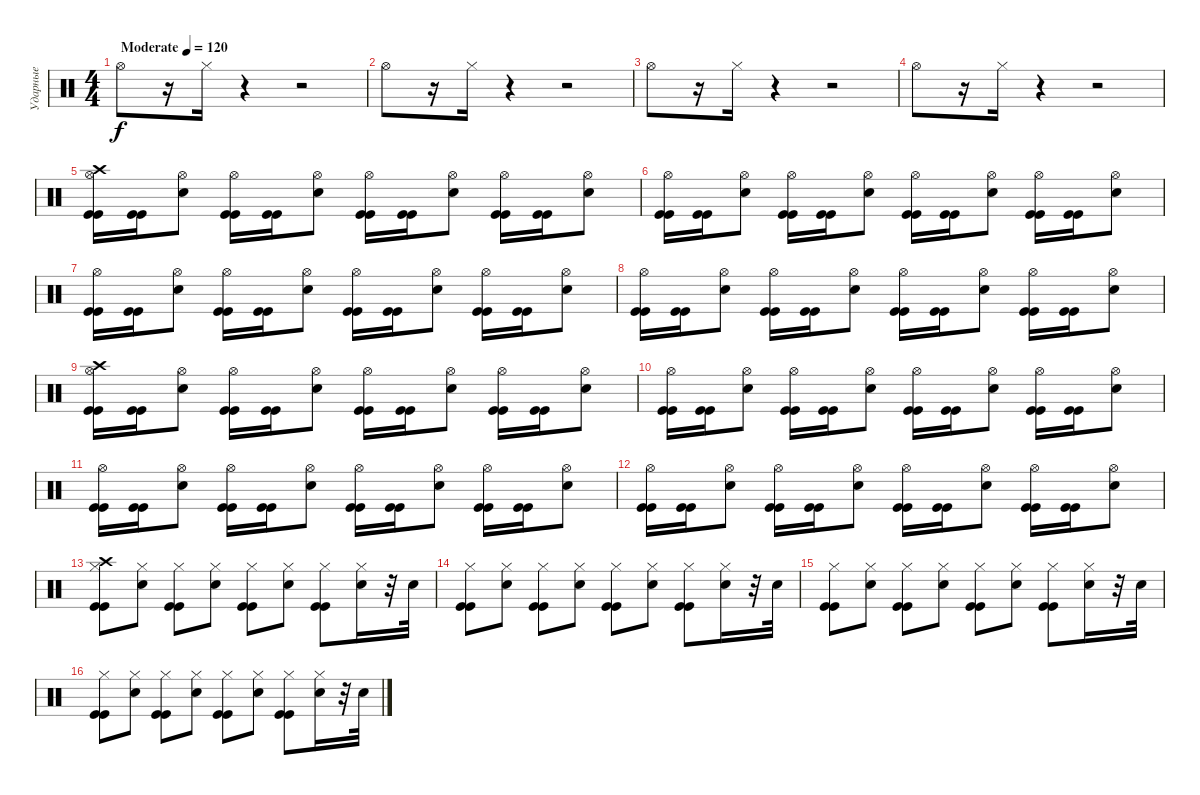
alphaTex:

\track ("Ударные" "Ударные") {instrument percussion}
\staff {score}
\articulation defaults
\ts (4 4)
\tempo (120 "Moderate")
\clef neutral
\ks c "Hi-Hat (open)".8{dy f}
r.16 "Hi-Hat (closed)".16 r.4 r.2 |
"Hi-Hat (open)".8 r.16 "Hi-Hat (closed)".16 r.4 r.2 |
"Hi-Hat (open)".8 r.16 "Hi-Hat (closed)".16 r.4 r.2 |
"Hi-Hat (open)".8 r.16 "Hi-Hat (closed)".16 r.4 r.2 |
("Crash high (hit)" "Hi-Hat (open)" "Kick (hit)" "Kick (hit)").16 ("Kick (hit)" "Kick (hit)").16 ("Hi-Hat (open)" "Electric Snare (hit)").8 ("Hi-Hat (open)" "Kick (hit)" "Kick (hit)").16 ("Kick (hit)" "Kick (hit)").16 ("Hi-Hat (open)" "Electric Snare (hit)").8 ("Hi-Hat (open)" "Kick (hit)" "Kick (hit)").16 ("Kick (hit)" "Kick (hit)").16 ("Hi-Hat (open)" "Electric Snare (hit)").8 ("Hi-Hat (open)" "Kick (hit)" "Kick (hit)").16 ("Kick (hit)" "Kick (hit)").16 ("Hi-Hat (open)" "Electric Snare (hit)").8 |
("Hi-Hat (open)" "Kick (hit)" "Kick (hit)").16 ("Kick (hit)" "Kick (hit)").16 ("Hi-Hat (open)" "Electric Snare (hit)").8 ("Hi-Hat (open)" "Kick (hit)" "Kick (hit)").16 ("Kick (hit)" "Kick (hit)").16 ("Hi-Hat (open)" "Electric Snare (hit)").8 ("Hi-Hat (open)" "Kick (hit)" "Kick (hit)").16 ("Kick (hit)" "Kick (hit)").16 ("Hi-Hat (open)" "Electric Snare (hit)").8 ("Hi-Hat (open)" "Kick (hit)" "Kick (hit)").16 ("Kick (hit)" "Kick (hit)").16 ("Hi-Hat (open)" "Electric Snare (hit)").8 |
("Hi-Hat (open)" "Kick (hit)" "Kick (hit)").16 ("Kick (hit)" "Kick (hit)").16 ("Hi-Hat (open)" "Electric Snare (hit)").8 ("Hi-Hat (open)" "Kick (hit)" "Kick (hit)").16 ("Kick (hit)" "Kick (hit)").16 ("Hi-Hat (open)" "Electric Snare (hit)").8 ("Hi-Hat (open)" "Kick (hit)" "Kick (hit)").16 ("Kick (hit)" "Kick (hit)").16 ("Hi-Hat (open)" "Electric Snare (hit)").8 ("Hi-Hat (open)" "Kick (hit)" "Kick (hit)").16 ("Kick (hit)" "Kick (hit)").16 ("Hi-Hat (open)" "Electric Snare (hit)").8 |
("Hi-Hat (open)" "Kick (hit)" "Kick (hit)").16 ("Kick (hit)" "Kick (hit)").16 ("Hi-Hat (open)" "Electric Snare (hit)").8 ("Hi-Hat (open)" "Kick (hit)" "Kick (hit)").16 ("Kick (hit)" "Kick (hit)").16 ("Hi-Hat (open)" "Electric Snare (hit)").8 ("Hi-Hat (open)" "Kick (hit)" "Kick (hit)").16 ("Kick (hit)" "Kick (hit)").16 ("Hi-Hat (open)" "Electric Snare (hit)").8 ("Hi-Hat (open)" "Kick (hit)" "Kick (hit)").16 ("Kick (hit)" "Kick (hit)").16 ("Hi-Hat (open)" "Electric Snare (hit)").8 |
("Crash high (hit)" "Hi-Hat (open)" "Kick (hit)" "Kick (hit)").16 ("Kick (hit)" "Kick (hit)").16 ("Hi-Hat (open)" "Electric Snare (hit)").8 ("Hi-Hat (open)" "Kick (hit)" "Kick (hit)").16 ("Kick (hit)" "Kick (hit)").16 ("Hi-Hat (open)" "Electric Snare (hit)").8 ("Hi-Hat (open)" "Kick (hit)" "Kick (hit)").16 ("Kick (hit)" "Kick (hit)").16 ("Hi-Hat (open)" "Electric Snare (hit)").8 ("Hi-Hat (open)" "Kick (hit)" "Kick (hit)").16 ("Kick (hit)" "Kick (hit)").16 ("Hi-Hat (open)" "Electric Snare (hit)").8 |
("Hi-Hat (open)" "Kick (hit)" "Kick (hit)").16 ("Kick (hit)" "Kick (hit)").16 ("Hi-Hat (open)" "Electric Snare (hit)").8 ("Hi-Hat (open)" "Kick (hit)" "Kick (hit)").16 ("Kick (hit)" "Kick (hit)").16 ("Hi-Hat (open)" "Electric Snare (hit)").8 ("Hi-Hat (open)" "Kick (hit)" "Kick (hit)").16 ("Kick (hit)" "Kick (hit)").16 ("Hi-Hat (open)" "Electric Snare (hit)").8 ("Hi-Hat (open)" "Kick (hit)" "Kick (hit)").16 ("Kick (hit)" "Kick (hit)").16 ("Hi-Hat (open)" "Electric Snare (hit)").8 |
("Hi-Hat (open)" "Kick (hit)" "Kick (hit)").16 ("Kick (hit)" "Kick (hit)").16 ("Hi-Hat (open)" "Electric Snare (hit)").8 ("Hi-Hat (open)" "Kick (hit)" "Kick (hit)").16 ("Kick (hit)" "Kick (hit)").16 ("Hi-Hat (open)" "Electric Snare (hit)").8 ("Hi-Hat (open)" "Kick (hit)" "Kick (hit)").16 ("Kick (hit)" "Kick (hit)").16 ("Hi-Hat (open)" "Electric Snare (hit)").8 ("Hi-Hat (open)" "Kick (hit)" "Kick (hit)").16 ("Kick (hit)" "Kick (hit)").16 ("Hi-Hat (open)" "Electric Snare (hit)").8 |
("Hi-Hat (open)" "Kick (hit)" "Kick (hit)").16 ("Kick (hit)" "Kick (hit)").16 ("Hi-Hat (open)" "Electric Snare (hit)").8 ("Hi-Hat (open)" "Kick (hit)" "Kick (hit)").16 ("Kick (hit)" "Kick (hit)").16 ("Hi-Hat (open)" "Electric Snare (hit)").8 ("Hi-Hat (open)" "Kick (hit)" "Kick (hit)").16 ("Kick (hit)" "Kick (hit)").16 ("Hi-Hat (open)" "Electric Snare (hit)").8 ("Hi-Hat (open)" "Kick (hit)" "Kick (hit)").16 ("Kick (hit)" "Kick (hit)").16 ("Hi-Hat (open)" "Electric Snare (hit)").8 |
("Crash high (hit)" "Hi-Hat (closed)" "Kick (hit)" "Kick (hit)").8 ("Hi-Hat (closed)" "Electric Snare (hit)").8 ("Hi-Hat (closed)" "Kick (hit)" "Kick (hit)").8 ("Hi-Hat (closed)" "Electric Snare (hit)").8 ("Hi-Hat (closed)" "Kick (hit)" "Kick (hit)").8 ("Hi-Hat (closed)" "Electric Snare (hit)").8 ("Hi-Hat (closed)" "Kick (hit)" "Kick (hit)").8 ("Hi-Hat (closed)" "Electric Snare (hit)").16 r.32 "Electric Snare (hit)".32 |
("Hi-Hat (closed)" "Kick (hit)" "Kick (hit)").8 ("Hi-Hat (closed)" "Electric Snare (hit)").8 ("Hi-Hat (closed)" "Kick (hit)" "Kick (hit)").8 ("Hi-Hat (closed)" "Electric Snare (hit)").8 ("Hi-Hat (closed)" "Kick (hit)" "Kick (hit)").8 ("Hi-Hat (closed)" "Electric Snare (hit)").8 ("Hi-Hat (closed)" "Kick (hit)" "Kick (hit)").8 ("Hi-Hat (closed)" "Electric Snare (hit)").16 r.32 "Electric Snare (hit)".32 |
("Hi-Hat (closed)" "Kick (hit)" "Kick (hit)").8 ("Hi-Hat (closed)" "Electric Snare (hit)").8 ("Hi-Hat (closed)" "Kick (hit)" "Kick (hit)").8 ("Hi-Hat (closed)" "Electric Snare (hit)").8 ("Hi-Hat (closed)" "Kick (hit)" "Kick (hit)").8 ("Hi-Hat (closed)" "Electric Snare (hit)").8 ("Hi-Hat (closed)" "Kick (hit)" "Kick (hit)").8 ("Hi-Hat (closed)" "Electric Snare (hit)").16 r.32 "Electric Snare (hit)".32 |
("Hi-Hat (closed)" "Kick (hit)" "Kick (hit)").8 ("Hi-Hat (closed)" "Electric Snare (hit)").8 ("Hi-Hat (closed)" "Kick (hit)" "Kick (hit)").8 ("Hi-Hat (closed)" "Electric Snare (hit)").8 ("Hi-Hat (closed)" "Kick (hit)" "Kick (hit)").8 ("Hi-Hat (closed)" "Electric Snare (hit)").8 ("Hi-Hat (closed)" "Kick (hit)" "Kick (hit)").8 ("Hi-Hat (closed)" "Electric Snare (hit)").16 r.32 "Electric Snare (hit)".32
